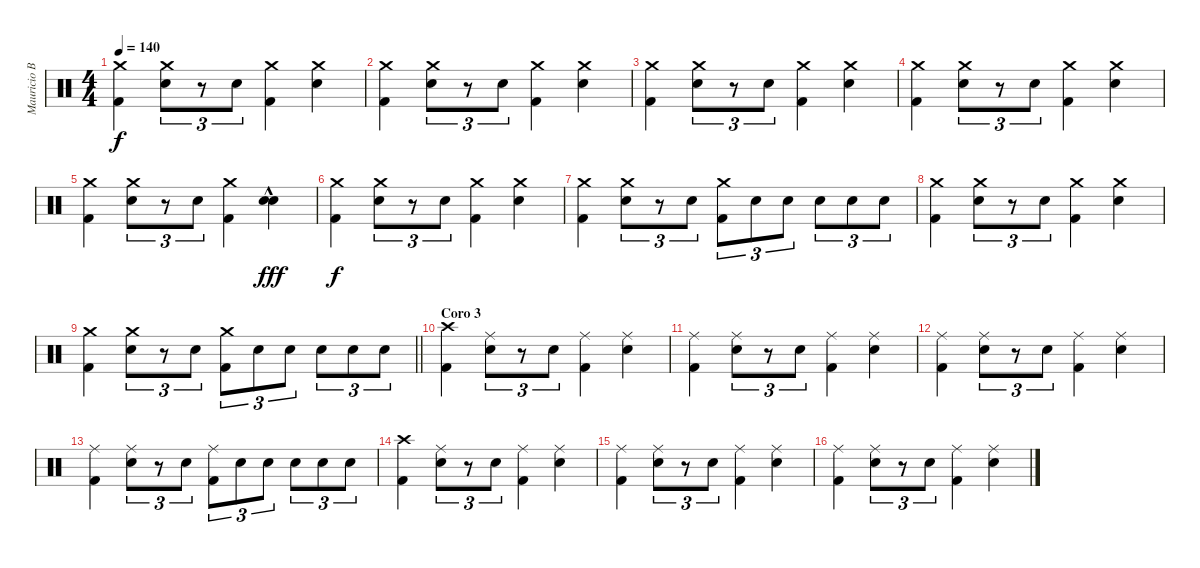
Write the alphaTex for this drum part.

\track ("Mauricio Basualto" "Mauricio B") {instrument percussion}
\staff {score}
\articulation defaults
\ts (4 4)
\tempo 140
\clef neutral
\ks c
("Crash medium (hit)" "Kick (hit) 2").4{dy f} ("Crash medium (hit)" "Electric Snare (hit)").8{tu (3 2)} r.8{tu (3 2)} "Electric Snare (hit)".8{tu (3 2)} ("Crash medium (hit)" "Kick (hit) 2").4 ("Crash medium (hit)" "Electric Snare (hit)").4 |
("Crash medium (hit)" "Kick (hit) 2").4 ("Crash medium (hit)" "Electric Snare (hit)").8{tu (3 2)} r.8{tu (3 2)} "Electric Snare (hit)".8{tu (3 2)} ("Crash medium (hit)" "Kick (hit) 2").4 ("Crash medium (hit)" "Electric Snare (hit)").4 |
("Crash medium (hit)" "Kick (hit) 2").4 ("Crash medium (hit)" "Electric Snare (hit)").8{tu (3 2)} r.8{tu (3 2)} "Electric Snare (hit)".8{tu (3 2)} ("Crash medium (hit)" "Kick (hit) 2").4 ("Crash medium (hit)" "Electric Snare (hit)").4 |
("Crash medium (hit)" "Kick (hit) 2").4 ("Crash medium (hit)" "Electric Snare (hit)").8{tu (3 2)} r.8{tu (3 2)} "Electric Snare (hit)".8{tu (3 2)} ("Crash medium (hit)" "Kick (hit) 2").4 ("Crash medium (hit)" "Electric Snare (hit)").4 |
("Crash medium (hit)" "Kick (hit) 2").4 ("Crash medium (hit)" "Electric Snare (hit)").8{tu (3 2)} r.8{tu (3 2)} "Electric Snare (hit)".8{tu (3 2)} ("Crash medium (hit)" "Kick (hit) 2").4 ("Electric Snare (hit)"{hac} "Electric Snare (hit)").4{dy fff} |
("Crash medium (hit)" "Kick (hit) 2").4{dy f} ("Crash medium (hit)" "Electric Snare (hit)").8{tu (3 2)} r.8{tu (3 2)} "Electric Snare (hit)".8{tu (3 2)} ("Crash medium (hit)" "Kick (hit) 2").4 ("Crash medium (hit)" "Electric Snare (hit)").4 |
("Crash medium (hit)" "Kick (hit) 2").4 ("Crash medium (hit)" "Electric Snare (hit)").8{tu (3 2)} r.8{tu (3 2)} "Electric Snare (hit)".8{tu (3 2)} ("Crash medium (hit)" "Kick (hit) 2").8{tu (3 2)} "Electric Snare (hit)".8{tu (3 2)} "Electric Snare (hit)".8{tu (3 2)} "Electric Snare (hit)".8{tu (3 2)} "Electric Snare (hit)".8{tu (3 2)} "Electric Snare (hit)".8{tu (3 2)} |
("Crash medium (hit)" "Kick (hit) 2").4 ("Crash medium (hit)" "Electric Snare (hit)").8{tu (3 2)} r.8{tu (3 2)} "Electric Snare (hit)".8{tu (3 2)} ("Crash medium (hit)" "Kick (hit) 2").4 ("Crash medium (hit)" "Electric Snare (hit)").4 |
\barLineRight lightlight
("Crash medium (hit)" "Kick (hit) 2").4 ("Crash medium (hit)" "Electric Snare (hit)").8{tu (3 2)} r.8{tu (3 2)} "Electric Snare (hit)".8{tu (3 2)} ("Crash medium (hit)" "Kick (hit) 2").8{tu (3 2)} "Electric Snare (hit)".8{tu (3 2)} "Electric Snare (hit)".8{tu (3 2)} "Electric Snare (hit)".8{tu (3 2)} "Electric Snare (hit)".8{tu (3 2)} "Electric Snare (hit)".8{tu (3 2)} |
\section ("" "Coro 3")
("Crash high (hit)" "Kick (hit) 2").4 ("Ride (middle)" "Electric Snare (hit)").8{tu (3 2)} r.8{tu (3 2)} "Electric Snare (hit)".8{tu (3 2)} ("Ride (middle)" "Kick (hit) 2").4 ("Ride (middle)" "Electric Snare (hit)").4 |
("Ride (middle)" "Kick (hit) 2").4 ("Ride (middle)" "Electric Snare (hit)").8{tu (3 2)} r.8{tu (3 2)} "Electric Snare (hit)".8{tu (3 2)} ("Ride (middle)" "Kick (hit) 2").4 ("Ride (middle)" "Electric Snare (hit)").4 |
("Ride (middle)" "Kick (hit) 2").4 ("Ride (middle)" "Electric Snare (hit)").8{tu (3 2)} r.8{tu (3 2)} "Electric Snare (hit)".8{tu (3 2)} ("Ride (middle)" "Kick (hit) 2").4 ("Ride (middle)" "Electric Snare (hit)").4 |
("Ride (middle)" "Kick (hit) 2").4 ("Ride (middle)" "Electric Snare (hit)").8{tu (3 2)} r.8{tu (3 2)} "Electric Snare (hit)".8{tu (3 2)} ("Ride (middle)" "Kick (hit) 2").8{tu (3 2)} "Electric Snare (hit)".8{tu (3 2)} "Electric Snare (hit)".8{tu (3 2)} "Electric Snare (hit)".8{tu (3 2)} "Electric Snare (hit)".8{tu (3 2)} "Electric Snare (hit)".8{tu (3 2)} |
("Crash high (hit)" "Kick (hit) 2").4 ("Ride (middle)" "Electric Snare (hit)").8{tu (3 2)} r.8{tu (3 2)} "Electric Snare (hit)".8{tu (3 2)} ("Ride (middle)" "Kick (hit) 2").4 ("Ride (middle)" "Electric Snare (hit)").4 |
("Ride (middle)" "Kick (hit) 2").4 ("Ride (middle)" "Electric Snare (hit)").8{tu (3 2)} r.8{tu (3 2)} "Electric Snare (hit)".8{tu (3 2)} ("Ride (middle)" "Kick (hit) 2").4 ("Ride (middle)" "Electric Snare (hit)").4 |
("Ride (middle)" "Kick (hit) 2").4 ("Ride (middle)" "Electric Snare (hit)").8{tu (3 2)} r.8{tu (3 2)} "Electric Snare (hit)".8{tu (3 2)} ("Ride (middle)" "Kick (hit) 2").4 ("Ride (middle)" "Electric Snare (hit)").4
